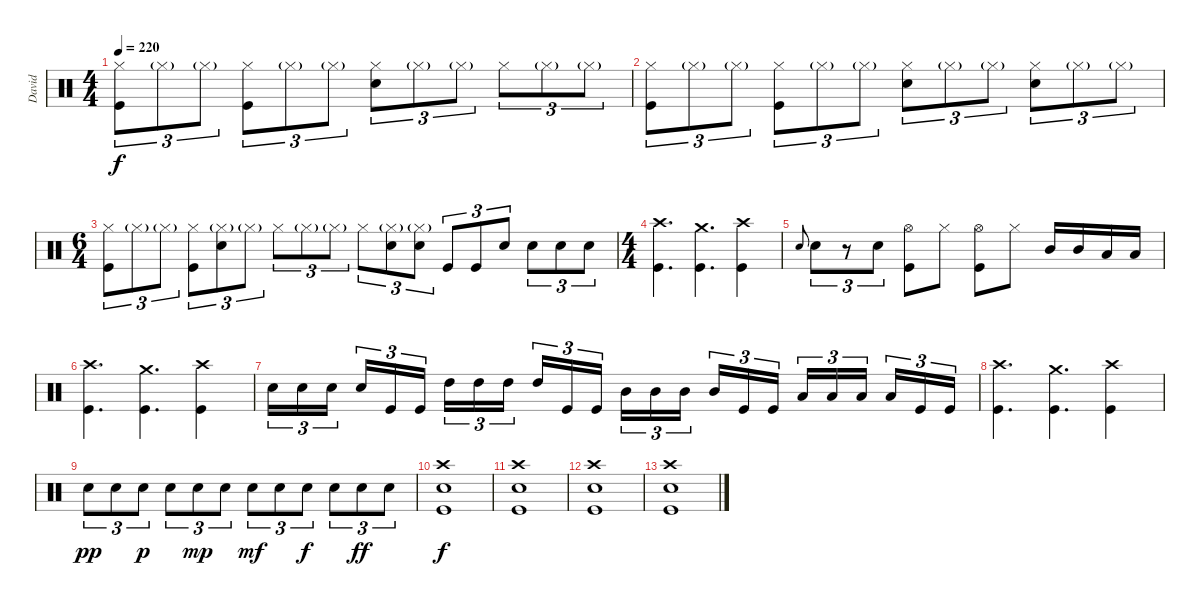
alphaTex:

\track ("David" "David") {instrument percussion}
\staff {score}
\articulation defaults
\ts (4 4)
\tempo 220
\clef neutral
\ks c
("Hi-Hat (closed)" "Kick (hit)").8{tu (3 2) dy f} "Hi-Hat (closed)"{g}.8{tu (3 2)} "Hi-Hat (closed)"{g}.8{tu (3 2)} ("Hi-Hat (closed)" "Kick (hit)").8{tu (3 2)} "Hi-Hat (closed)"{g}.8{tu (3 2)} "Hi-Hat (closed)"{g}.8{tu (3 2)} ("Hi-Hat (closed)" "Electric Snare (hit)").8{tu (3 2)} "Hi-Hat (closed)"{g}.8{tu (3 2)} "Hi-Hat (closed)"{g}.8{tu (3 2)} "Hi-Hat (closed)".8{tu (3 2)} "Hi-Hat (closed)"{g}.8{tu (3 2)} "Hi-Hat (closed)"{g}.8{tu (3 2)} |
("Hi-Hat (closed)" "Kick (hit)").8{tu (3 2)} "Hi-Hat (closed)"{g}.8{tu (3 2)} "Hi-Hat (closed)"{g}.8{tu (3 2)} ("Hi-Hat (closed)" "Kick (hit)").8{tu (3 2)} "Hi-Hat (closed)"{g}.8{tu (3 2)} "Hi-Hat (closed)"{g}.8{tu (3 2)} ("Hi-Hat (closed)" "Electric Snare (hit)").8{tu (3 2)} "Hi-Hat (closed)"{g}.8{tu (3 2)} "Hi-Hat (closed)"{g}.8{tu (3 2)} ("Hi-Hat (closed)" "Electric Snare (hit)").8{tu (3 2)} "Hi-Hat (closed)"{g}.8{tu (3 2)} "Hi-Hat (closed)"{g}.8{tu (3 2)} |
\ts (6 4)
("Hi-Hat (closed)" "Kick (hit)").8{tu (3 2)} "Hi-Hat (closed)"{g}.8{tu (3 2)} "Hi-Hat (closed)"{g}.8{tu (3 2)} ("Hi-Hat (closed)" "Kick (hit)").8{tu (3 2)} ("Hi-Hat (closed)"{g} "Electric Snare (hit)").8{tu (3 2)} "Hi-Hat (closed)"{g}.8{tu (3 2)} "Hi-Hat (closed)".8{tu (3 2)} "Hi-Hat (closed)"{g}.8{tu (3 2)} "Hi-Hat (closed)"{g}.8{tu (3 2)} "Hi-Hat (closed)".8{tu (3 2)} ("Hi-Hat (closed)"{g} "Electric Snare (hit)").8{tu (3 2)} ("Hi-Hat (closed)"{g} "Electric Snare (hit)").8{tu (3 2)} "Kick (hit)".8{tu (3 2)} "Kick (hit)".8{tu (3 2)} "Electric Snare (hit)".8{tu (3 2)} "Electric Snare (hit)".8{tu (3 2)} "Electric Snare (hit)".8{tu (3 2)} "Electric Snare (hit)".8{tu (3 2)} |
\ts (4 4)
("Crash high (hit)" "Kick (hit)").4{d} ("Crash medium (hit)" "Kick (hit)").4{d} ("Crash high (hit)" "Kick (hit)").4 |
"Electric Snare (hit)".8{gr onbeat} "Electric Snare (hit)".8{tu (3 2)} r.8{tu (3 2)} "Electric Snare (hit)".8{tu (3 2)} ("Hi-Hat (open)" "Kick (hit)").8 "Hi-Hat (closed)".8 ("Hi-Hat (open)" "Kick (hit)").8 "Hi-Hat (closed)".8 "Mid Tom (hit)".16 "Mid Tom (hit)".16 "Low Tom (hit)".16 "Low Tom (hit)".16 |
("Crash high (hit)" "Kick (hit)").4{d} ("Crash medium (hit)" "Kick (hit)").4{d} ("Crash high (hit)" "Kick (hit)").4 |
"Electric Snare (hit)".16{tu (3 2)} "Electric Snare (hit)".16{tu (3 2)} "Electric Snare (hit)".16{tu (3 2) beam splitsecondary} "Electric Snare (hit)".16{tu (3 2)} "Kick (hit)".16{tu (3 2)} "Kick (hit)".16{tu (3 2)} "High Tom (hit)".16{tu (3 2)} "High Tom (hit)".16{tu (3 2)} "High Tom (hit)".16{tu (3 2) beam splitsecondary} "High Tom (hit)".16{tu (3 2)} "Kick (hit)".16{tu (3 2)} "Kick (hit)".16{tu (3 2)} "Mid Tom (hit)".16{tu (3 2)} "Mid Tom (hit)".16{tu (3 2)} "Mid Tom (hit)".16{tu (3 2) beam splitsecondary} "Mid Tom (hit)".16{tu (3 2)} "Kick (hit)".16{tu (3 2)} "Kick (hit)".16{tu (3 2)} "Low Tom (hit)".16{tu (3 2)} "Low Tom (hit)".16{tu (3 2)} "Low Tom (hit)".16{tu (3 2) beam splitsecondary} "Low Tom (hit)".16{tu (3 2)} "Kick (hit)".16{tu (3 2)} "Kick (hit)".16{tu (3 2)} |
("Crash high (hit)" "Kick (hit)").4{d} ("Crash medium (hit)" "Kick (hit)").4{d} ("Crash high (hit)" "Kick (hit)").4 |
"Electric Snare (hit)".8{tu (3 2) dy pp} "Electric Snare (hit)".8{tu (3 2)} "Electric Snare (hit)".8{tu (3 2) dy p} "Electric Snare (hit)".8{tu (3 2)} "Electric Snare (hit)".8{tu (3 2) dy mp} "Electric Snare (hit)".8{tu (3 2)} "Electric Snare (hit)".8{tu (3 2) dy mf} "Electric Snare (hit)".8{tu (3 2)} "Electric Snare (hit)".8{tu (3 2) dy f} "Electric Snare (hit)".8{tu (3 2)} "Electric Snare (hit)".8{tu (3 2) dy ff} "Electric Snare (hit)".8{tu (3 2)} |
("Crash high (hit)" "Electric Snare (hit)" "Kick (hit)").1{dy f} |
("Crash high (hit)" "Electric Snare (hit)" "Kick (hit)").1 |
("Crash high (hit)" "Electric Snare (hit)" "Kick (hit)").1 |
("Crash high (hit)" "Electric Snare (hit)" "Kick (hit)").1
